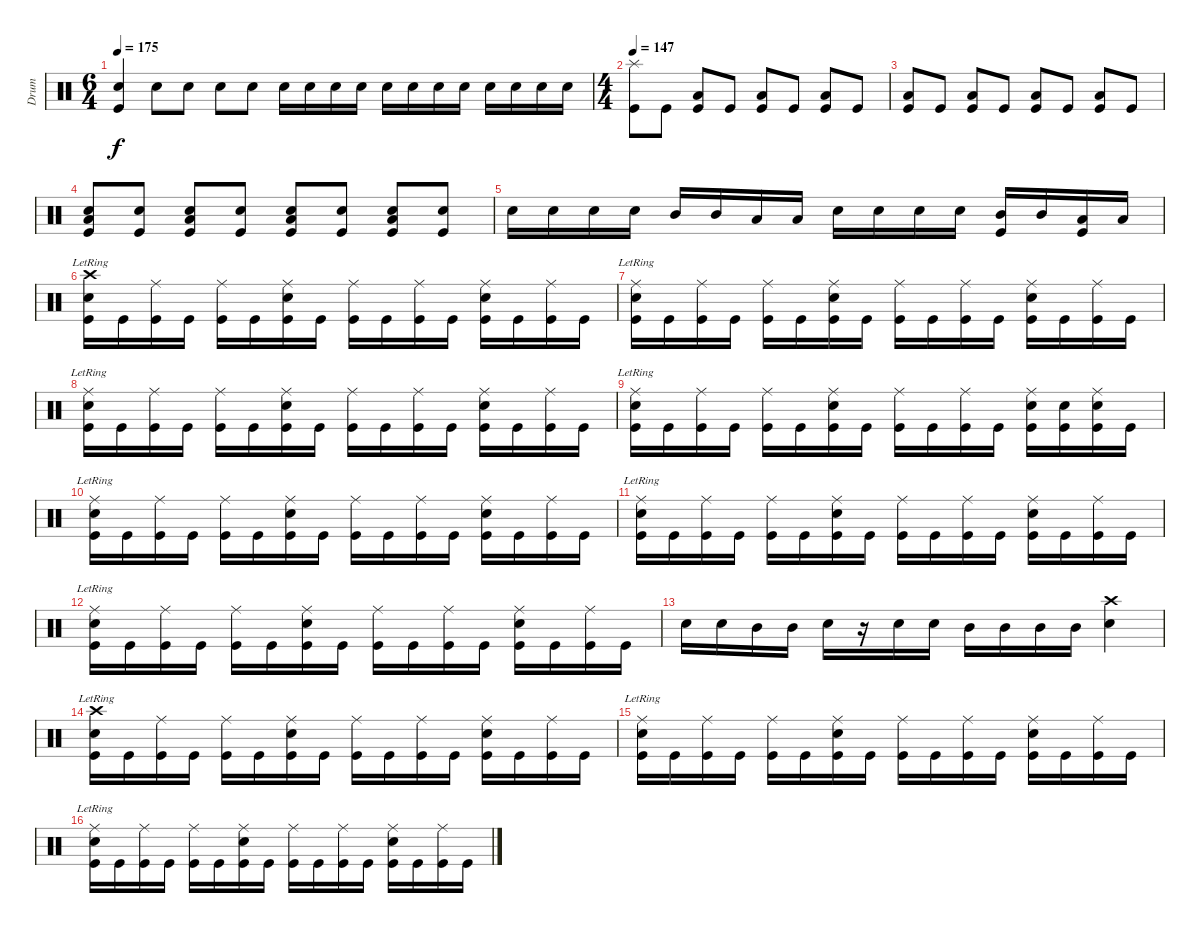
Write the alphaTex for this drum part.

\track ("Drum" "Drum") {instrument percussion}
\staff {score}
\articulation defaults
\ts (6 4)
\tempo 175
\clef neutral
\ks c
("Snare (hit) 2" "Kick (hit)").4{dy f} "Snare (hit) 2".8 "Snare (hit) 2".8 "Snare (hit) 2".8 "Snare (hit) 2".8 "Snare (hit) 2".16 "Snare (hit) 2".16 "Snare (hit) 2".16 "Snare (hit) 2".16 "Snare (hit) 2".16 "Snare (hit) 2".16 "Snare (hit) 2".16 "Snare (hit) 2".16 "Snare (hit) 2".16 "Snare (hit) 2".16 "Snare (hit) 2".16 "Snare (hit) 2".16 |
\ts (4 4)
\tempo 147
("Splash (hit)" "Kick (hit)").8{volume 13} "Kick (hit)".8 ("Low Floor Tom (hit)" "Kick (hit)").8 "Kick (hit)".8 ("Low Floor Tom (hit)" "Kick (hit)").8 "Kick (hit)".8 ("Low Floor Tom (hit)" "Kick (hit)").8 "Kick (hit)".8 |
("Low Floor Tom (hit)" "Kick (hit)").8 "Kick (hit)".8 ("Low Floor Tom (hit)" "Kick (hit)").8 "Kick (hit)".8 ("Low Floor Tom (hit)" "Kick (hit)").8 "Kick (hit)".8 ("Low Floor Tom (hit)" "Kick (hit)").8 "Kick (hit)".8 |
("Snare (hit) 2" "Low Floor Tom (hit)" "Kick (hit)").8 ("Snare (hit) 2" "Kick (hit)").8 ("Snare (hit) 2" "Low Floor Tom (hit)" "Kick (hit)").8 ("Snare (hit) 2" "Kick (hit)").8 ("Snare (hit) 2" "Low Floor Tom (hit)" "Kick (hit)").8 ("Snare (hit) 2" "Kick (hit)").8 ("Snare (hit) 2" "Low Floor Tom (hit)" "Kick (hit)").8 ("Snare (hit) 2" "Kick (hit)").8 |
"Snare (hit) 2".16 "Snare (hit) 2".16 "Snare (hit) 2".16 "Snare (hit) 2".16 "Mid Tom (hit)".16 "Mid Tom (hit)".16 "Low Tom (hit)".16 "Low Tom (hit)".16 "Snare (hit) 2".16 "Snare (hit) 2".16 "Snare (hit) 2".16 "Snare (hit) 2".16 ("Mid Tom (hit)" "Kick (hit)").16 "Mid Tom (hit)".16 ("Low Tom (hit)" "Kick (hit)").16 "Low Tom (hit)".16 |
("Crash high (hit)"{lr} "Snare (hit) 2" "Kick (hit)").16 "Kick (hit)".16 ("Ride (middle)" "Kick (hit)").16 "Kick (hit)".16 ("Ride (middle)" "Kick (hit)").16 "Kick (hit)".16 ("Ride (middle)" "Snare (hit) 2" "Kick (hit)").16 "Kick (hit)".16 ("Ride (middle)" "Kick (hit)").16 "Kick (hit)".16 ("Ride (middle)" "Kick (hit)").16 "Kick (hit)".16 ("Ride (middle)" "Snare (hit) 2" "Kick (hit)").16 "Kick (hit)".16 ("Ride (middle)" "Kick (hit)").16 "Kick (hit)".16 |
("Ride (middle)"{lr} "Snare (hit) 2" "Kick (hit)").16 "Kick (hit)".16 ("Ride (middle)" "Kick (hit)").16 "Kick (hit)".16 ("Ride (middle)" "Kick (hit)").16 "Kick (hit)".16 ("Ride (middle)" "Snare (hit) 2" "Kick (hit)").16 "Kick (hit)".16 ("Ride (middle)" "Kick (hit)").16 "Kick (hit)".16 ("Ride (middle)" "Kick (hit)").16 "Kick (hit)".16 ("Ride (middle)" "Snare (hit) 2" "Kick (hit)").16 "Kick (hit)".16 ("Ride (middle)" "Kick (hit)").16 "Kick (hit)".16 |
("Ride (middle)"{lr} "Snare (hit) 2" "Kick (hit)").16 "Kick (hit)".16 ("Ride (middle)" "Kick (hit)").16 "Kick (hit)".16 ("Ride (middle)" "Kick (hit)").16 "Kick (hit)".16 ("Ride (middle)" "Snare (hit) 2" "Kick (hit)").16 "Kick (hit)".16 ("Ride (middle)" "Kick (hit)").16 "Kick (hit)".16 ("Ride (middle)" "Kick (hit)").16 "Kick (hit)".16 ("Ride (middle)" "Snare (hit) 2" "Kick (hit)").16 "Kick (hit)".16 ("Ride (middle)" "Kick (hit)").16 "Kick (hit)".16 |
("Ride (middle)"{lr} "Snare (hit) 2" "Kick (hit)").16 "Kick (hit)".16 ("Ride (middle)" "Kick (hit)").16 "Kick (hit)".16 ("Ride (middle)" "Kick (hit)").16 "Kick (hit)".16 ("Ride (middle)" "Snare (hit) 2" "Kick (hit)").16 "Kick (hit)".16 ("Ride (middle)" "Kick (hit)").16 "Kick (hit)".16 ("Ride (middle)" "Kick (hit)").16 "Kick (hit)".16 ("Ride (middle)" "Snare (hit) 2" "Kick (hit)").16 ("Snare (hit) 2" "Kick (hit)").16 ("Ride (middle)" "Snare (hit) 2" "Kick (hit)").16 "Kick (hit)".16 |
("Ride (middle)"{lr} "Snare (hit) 2" "Kick (hit)").16 "Kick (hit)".16 ("Ride (middle)" "Kick (hit)").16 "Kick (hit)".16 ("Ride (middle)" "Kick (hit)").16 "Kick (hit)".16 ("Ride (middle)" "Snare (hit) 2" "Kick (hit)").16 "Kick (hit)".16 ("Ride (middle)" "Kick (hit)").16 "Kick (hit)".16 ("Ride (middle)" "Kick (hit)").16 "Kick (hit)".16 ("Ride (middle)" "Snare (hit) 2" "Kick (hit)").16 "Kick (hit)".16 ("Ride (middle)" "Kick (hit)").16 "Kick (hit)".16 |
("Ride (middle)"{lr} "Snare (hit) 2" "Kick (hit)").16 "Kick (hit)".16 ("Ride (middle)" "Kick (hit)").16 "Kick (hit)".16 ("Ride (middle)" "Kick (hit)").16 "Kick (hit)".16 ("Ride (middle)" "Snare (hit) 2" "Kick (hit)").16 "Kick (hit)".16 ("Ride (middle)" "Kick (hit)").16 "Kick (hit)".16 ("Ride (middle)" "Kick (hit)").16 "Kick (hit)".16 ("Ride (middle)" "Snare (hit) 2" "Kick (hit)").16 "Kick (hit)".16 ("Ride (middle)" "Kick (hit)").16 "Kick (hit)".16 |
("Ride (middle)"{lr} "Snare (hit) 2" "Kick (hit)").16 "Kick (hit)".16 ("Ride (middle)" "Kick (hit)").16 "Kick (hit)".16 ("Ride (middle)" "Kick (hit)").16 "Kick (hit)".16 ("Ride (middle)" "Snare (hit) 2" "Kick (hit)").16 "Kick (hit)".16 ("Ride (middle)" "Kick (hit)").16 "Kick (hit)".16 ("Ride (middle)" "Kick (hit)").16 "Kick (hit)".16 ("Ride (middle)" "Snare (hit) 2" "Kick (hit)").16 "Kick (hit)".16 ("Ride (middle)" "Kick (hit)").16 "Kick (hit)".16 |
"Snare (hit) 2".16 "Snare (hit) 2".16 "Mid Tom (hit)".16 "Mid Tom (hit)".16 "Snare (hit) 2".16 r.16 "Snare (hit) 2".16 "Snare (hit) 2".16 "Mid Tom (hit)".16 "Mid Tom (hit)".16 "Mid Tom (hit)".16 "Mid Tom (hit)".16 ("Crash high (hit)" "Snare (hit) 2").4 |
("Crash high (hit)"{lr} "Snare (hit) 2" "Kick (hit)").16 "Kick (hit)".16 ("Ride (middle)" "Kick (hit)").16 "Kick (hit)".16 ("Ride (middle)" "Kick (hit)").16 "Kick (hit)".16 ("Ride (middle)" "Snare (hit) 2" "Kick (hit)").16 "Kick (hit)".16 ("Ride (middle)" "Kick (hit)").16 "Kick (hit)".16 ("Ride (middle)" "Kick (hit)").16 "Kick (hit)".16 ("Ride (middle)" "Snare (hit) 2" "Kick (hit)").16 "Kick (hit)".16 ("Ride (middle)" "Kick (hit)").16 "Kick (hit)".16 |
("Ride (middle)"{lr} "Snare (hit) 2" "Kick (hit)").16 "Kick (hit)".16 ("Ride (middle)" "Kick (hit)").16 "Kick (hit)".16 ("Ride (middle)" "Kick (hit)").16 "Kick (hit)".16 ("Ride (middle)" "Snare (hit) 2" "Kick (hit)").16 "Kick (hit)".16 ("Ride (middle)" "Kick (hit)").16 "Kick (hit)".16 ("Ride (middle)" "Kick (hit)").16 "Kick (hit)".16 ("Ride (middle)" "Snare (hit) 2" "Kick (hit)").16 "Kick (hit)".16 ("Ride (middle)" "Kick (hit)").16 "Kick (hit)".16 |
("Ride (middle)"{lr} "Snare (hit) 2" "Kick (hit)").16 "Kick (hit)".16 ("Ride (middle)" "Kick (hit)").16 "Kick (hit)".16 ("Ride (middle)" "Kick (hit)").16 "Kick (hit)".16 ("Ride (middle)" "Snare (hit) 2" "Kick (hit)").16 "Kick (hit)".16 ("Ride (middle)" "Kick (hit)").16 "Kick (hit)".16 ("Ride (middle)" "Kick (hit)").16 "Kick (hit)".16 ("Ride (middle)" "Snare (hit) 2" "Kick (hit)").16 "Kick (hit)".16 ("Ride (middle)" "Kick (hit)").16 "Kick (hit)".16
